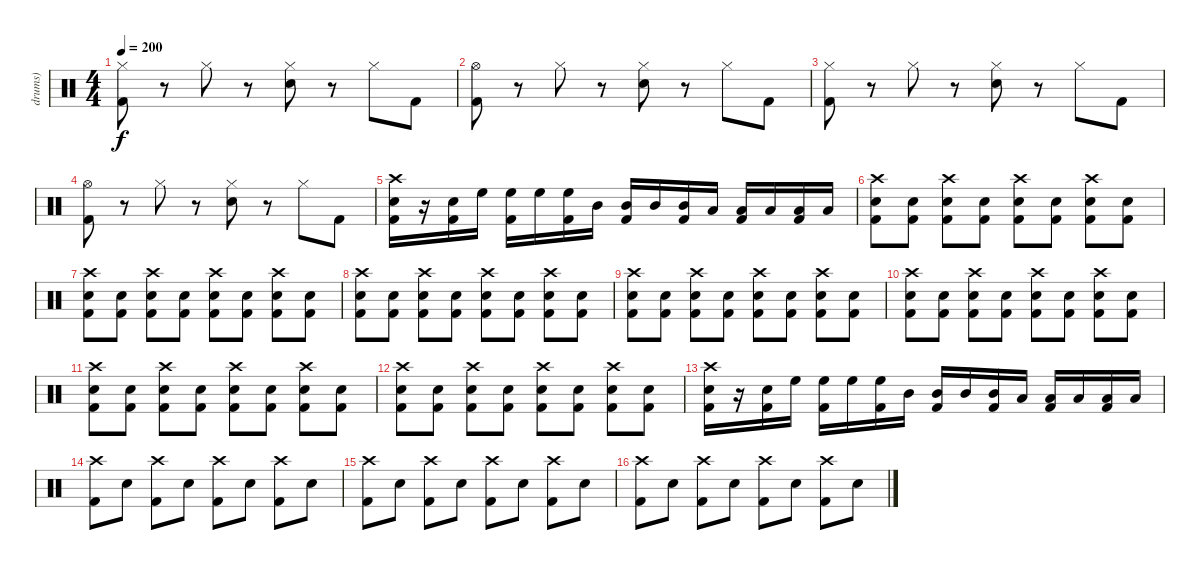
\track ("drums)" "drums)") {instrument percussion}
\staff {score}
\articulation defaults
\ts (4 4)
\tempo 200
\clef neutral
\ks c
("Hi-Hat (closed)" "Kick (hit) 2").8{dy f} r.8 "Hi-Hat (closed)".8 r.8 ("Hi-Hat (closed)" "Electric Snare (hit)").8 r.8 "Hi-Hat (closed)".8 "Kick (hit) 2".8 |
("Hi-Hat (open)" "Kick (hit) 2").8 r.8 "Hi-Hat (closed)".8 r.8 ("Hi-Hat (closed)" "Electric Snare (hit)").8 r.8 "Hi-Hat (closed)".8 "Kick (hit) 2".8 |
("Hi-Hat (closed)" "Kick (hit) 2").8 r.8 "Hi-Hat (closed)".8 r.8 ("Hi-Hat (closed)" "Electric Snare (hit)").8 r.8 "Hi-Hat (closed)".8 "Kick (hit) 2".8 |
("Hi-Hat (open)" "Kick (hit) 2").8 r.8 "Hi-Hat (closed)".8 r.8 ("Hi-Hat (closed)" "Electric Snare (hit)").8 r.8 "Hi-Hat (closed)".8 "Kick (hit) 2".8 |
("Crash high (hit)" "Electric Snare (hit)" "Kick (hit) 2").16 r.16 ("Electric Snare (hit)" "Kick (hit) 2").16 "High Floor Tom (hit)".16 ("High Floor Tom (hit)" "Kick (hit) 2").16 "High Floor Tom (hit)".16 ("High Floor Tom (hit)" "Kick (hit) 2").16 "Mid Tom (hit)".16 ("Mid Tom (hit)" "Kick (hit) 2").16 "Mid Tom (hit)".16 ("Mid Tom (hit)" "Kick (hit) 2").16 "Low Floor Tom (hit)".16 ("Low Floor Tom (hit)" "Kick (hit) 2").16 "Low Floor Tom (hit)".16 ("Low Floor Tom (hit)" "Kick (hit) 2").16 "Low Floor Tom (hit)".16 |
("Crash high (hit)" "Electric Snare (hit)" "Kick (hit) 2").8 ("Electric Snare (hit)" "Kick (hit) 2").8 ("Crash high (hit)" "Electric Snare (hit)" "Kick (hit) 2").8 ("Electric Snare (hit)" "Kick (hit) 2").8 ("Crash high (hit)" "Electric Snare (hit)" "Kick (hit) 2").8 ("Electric Snare (hit)" "Kick (hit) 2").8 ("Crash high (hit)" "Electric Snare (hit)" "Kick (hit) 2").8 ("Electric Snare (hit)" "Kick (hit) 2").8 |
("Crash high (hit)" "Electric Snare (hit)" "Kick (hit) 2").8 ("Electric Snare (hit)" "Kick (hit) 2").8 ("Crash high (hit)" "Electric Snare (hit)" "Kick (hit) 2").8 ("Electric Snare (hit)" "Kick (hit) 2").8 ("Crash high (hit)" "Electric Snare (hit)" "Kick (hit) 2").8 ("Electric Snare (hit)" "Kick (hit) 2").8 ("Crash high (hit)" "Electric Snare (hit)" "Kick (hit) 2").8 ("Electric Snare (hit)" "Kick (hit) 2").8 |
("Crash high (hit)" "Electric Snare (hit)" "Kick (hit) 2").8 ("Electric Snare (hit)" "Kick (hit) 2").8 ("Crash high (hit)" "Electric Snare (hit)" "Kick (hit) 2").8 ("Electric Snare (hit)" "Kick (hit) 2").8 ("Crash high (hit)" "Electric Snare (hit)" "Kick (hit) 2").8 ("Electric Snare (hit)" "Kick (hit) 2").8 ("Crash high (hit)" "Electric Snare (hit)" "Kick (hit) 2").8 ("Electric Snare (hit)" "Kick (hit) 2").8 |
("Crash high (hit)" "Electric Snare (hit)" "Kick (hit) 2").8 ("Electric Snare (hit)" "Kick (hit) 2").8 ("Crash high (hit)" "Electric Snare (hit)" "Kick (hit) 2").8 ("Electric Snare (hit)" "Kick (hit) 2").8 ("Crash high (hit)" "Electric Snare (hit)" "Kick (hit) 2").8 ("Electric Snare (hit)" "Kick (hit) 2").8 ("Crash high (hit)" "Electric Snare (hit)" "Kick (hit) 2").8 ("Electric Snare (hit)" "Kick (hit) 2").8 |
("Crash high (hit)" "Electric Snare (hit)" "Kick (hit) 2").8 ("Electric Snare (hit)" "Kick (hit) 2").8 ("Crash high (hit)" "Electric Snare (hit)" "Kick (hit) 2").8 ("Electric Snare (hit)" "Kick (hit) 2").8 ("Crash high (hit)" "Electric Snare (hit)" "Kick (hit) 2").8 ("Electric Snare (hit)" "Kick (hit) 2").8 ("Crash high (hit)" "Electric Snare (hit)" "Kick (hit) 2").8 ("Electric Snare (hit)" "Kick (hit) 2").8 |
("Crash high (hit)" "Electric Snare (hit)" "Kick (hit) 2").8 ("Electric Snare (hit)" "Kick (hit) 2").8 ("Crash high (hit)" "Electric Snare (hit)" "Kick (hit) 2").8 ("Electric Snare (hit)" "Kick (hit) 2").8 ("Crash high (hit)" "Electric Snare (hit)" "Kick (hit) 2").8 ("Electric Snare (hit)" "Kick (hit) 2").8 ("Crash high (hit)" "Electric Snare (hit)" "Kick (hit) 2").8 ("Electric Snare (hit)" "Kick (hit) 2").8 |
("Crash high (hit)" "Electric Snare (hit)" "Kick (hit) 2").8 ("Electric Snare (hit)" "Kick (hit) 2").8 ("Crash high (hit)" "Electric Snare (hit)" "Kick (hit) 2").8 ("Electric Snare (hit)" "Kick (hit) 2").8 ("Crash high (hit)" "Electric Snare (hit)" "Kick (hit) 2").8 ("Electric Snare (hit)" "Kick (hit) 2").8 ("Crash high (hit)" "Electric Snare (hit)" "Kick (hit) 2").8 ("Electric Snare (hit)" "Kick (hit) 2").8 |
("Crash high (hit)" "Electric Snare (hit)" "Kick (hit) 2").16 r.16 ("Electric Snare (hit)" "Kick (hit) 2").16 "High Floor Tom (hit)".16 ("High Floor Tom (hit)" "Kick (hit) 2").16 "High Floor Tom (hit)".16 ("High Floor Tom (hit)" "Kick (hit) 2").16 "Mid Tom (hit)".16 ("Mid Tom (hit)" "Kick (hit) 2").16 "Mid Tom (hit)".16 ("Mid Tom (hit)" "Kick (hit) 2").16 "Low Floor Tom (hit)".16 ("Low Floor Tom (hit)" "Kick (hit) 2").16 "Low Floor Tom (hit)".16 ("Low Floor Tom (hit)" "Kick (hit) 2").16 "Low Floor Tom (hit)".16 |
("Crash high (hit)" "Kick (hit) 2").8 "Electric Snare (hit)".8 ("Crash high (hit)" "Kick (hit) 2").8 "Electric Snare (hit)".8 ("Crash high (hit)" "Kick (hit) 2").8 "Electric Snare (hit)".8 ("Crash high (hit)" "Kick (hit) 2").8 "Electric Snare (hit)".8 |
("Crash high (hit)" "Kick (hit) 2").8 "Electric Snare (hit)".8 ("Crash high (hit)" "Kick (hit) 2").8 "Electric Snare (hit)".8 ("Crash high (hit)" "Kick (hit) 2").8 "Electric Snare (hit)".8 ("Crash high (hit)" "Kick (hit) 2").8 "Electric Snare (hit)".8 |
("Crash high (hit)" "Kick (hit) 2").8 "Electric Snare (hit)".8 ("Crash high (hit)" "Kick (hit) 2").8 "Electric Snare (hit)".8 ("Crash high (hit)" "Kick (hit) 2").8 "Electric Snare (hit)".8 ("Crash high (hit)" "Kick (hit) 2").8 "Electric Snare (hit)".8
